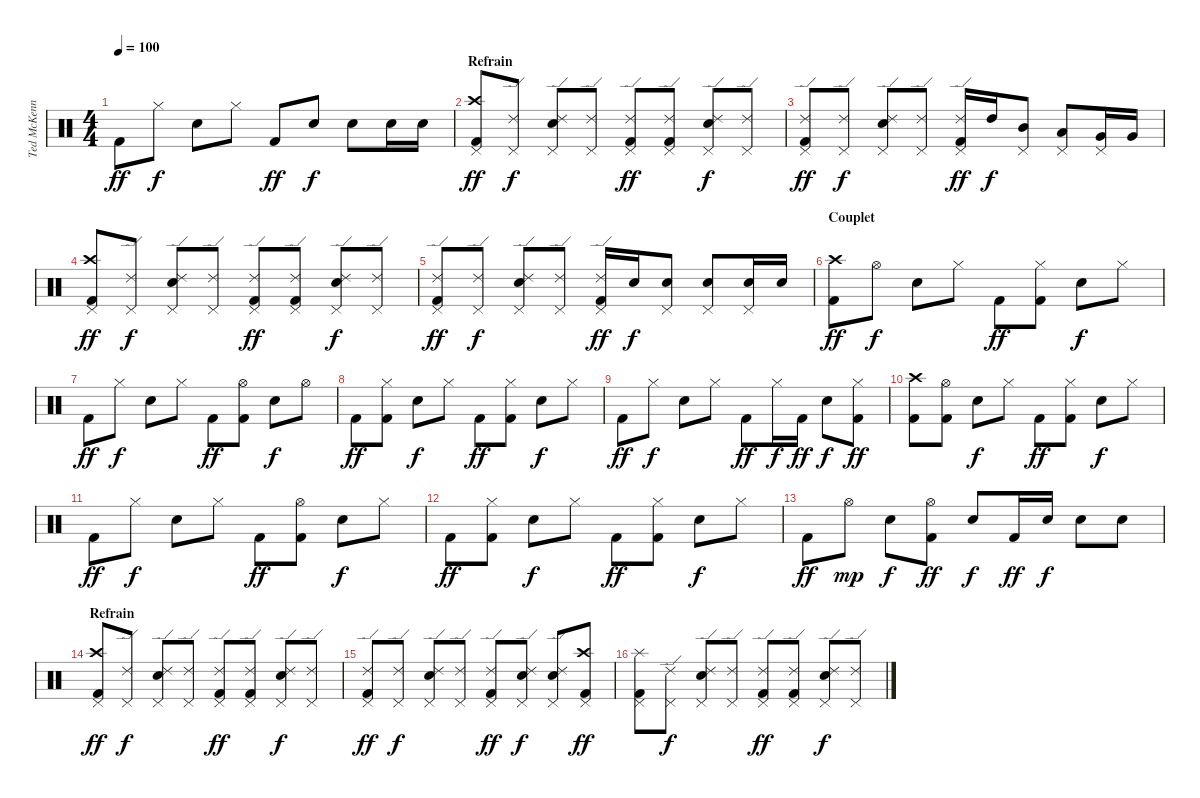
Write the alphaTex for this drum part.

\track ("Ted McKenna" "Ted McKenn") {instrument percussion}
\staff {score}
\articulation defaults
\ts (4 4)
\tempo 100
\clef neutral
\ks c "Kick (hit) 2".8{dy ff} "Hi-Hat (closed)".8{dy f} "Snare (hit) 2".8 "Hi-Hat (closed)".8 "Kick (hit) 2".8{dy ff} "Snare (hit) 2".8{dy f} "Snare (hit) 2".8 "Snare (hit) 2".16 "Snare (hit) 2".16
|
\section ("" "Refrain")
("Crash high (hit)" "Pedal Hi-Hat (hit)" "Kick (hit) 2").8{dy ff} ("Ride (edge) 2" "Pedal Hi-Hat (hit)").8{dy f} ("Ride (edge) 2" "Snare (hit) 2" "Pedal Hi-Hat (hit)").8 ("Ride (edge) 2" "Pedal Hi-Hat (hit)").8 ("Ride (edge) 2" "Pedal Hi-Hat (hit)" "Kick (hit) 2").8{dy ff} ("Ride (edge) 2" "Pedal Hi-Hat (hit)" "Kick (hit) 2").8 ("Ride (edge) 2" "Snare (hit) 2" "Pedal Hi-Hat (hit)").8{dy f} ("Ride (edge) 2" "Pedal Hi-Hat (hit)").8 |
("Ride (edge) 2" "Pedal Hi-Hat (hit)" "Kick (hit) 2").8{dy ff} ("Ride (edge) 2" "Pedal Hi-Hat (hit)").8{dy f} ("Ride (edge) 2" "Snare (hit) 2" "Pedal Hi-Hat (hit)").8 ("Ride (edge) 2" "Pedal Hi-Hat (hit)").8 ("Ride (edge) 2" "Pedal Hi-Hat (hit)" "Kick (hit) 2").16{dy ff} "High Tom (hit)".16{dy f} ("Mid Tom (hit)" "Pedal Hi-Hat (hit)").8 ("Low Tom (hit)" "Pedal Hi-Hat (hit)").8 ("Very Low Tom (hit)" "Pedal Hi-Hat (hit)").16 "Very Low Tom (hit)".16 |
("Crash high (hit)" "Pedal Hi-Hat (hit)" "Kick (hit) 2").8{dy ff} ("Ride (edge) 2" "Pedal Hi-Hat (hit)").8{dy f} ("Ride (edge) 2" "Snare (hit) 2" "Pedal Hi-Hat (hit)").8 ("Ride (edge) 2" "Pedal Hi-Hat (hit)").8 ("Ride (edge) 2" "Pedal Hi-Hat (hit)" "Kick (hit) 2").8{dy ff} ("Ride (edge) 2" "Pedal Hi-Hat (hit)" "Kick (hit) 2").8 ("Ride (edge) 2" "Snare (hit) 2" "Pedal Hi-Hat (hit)").8{dy f} ("Ride (edge) 2" "Pedal Hi-Hat (hit)").8 |
("Ride (edge) 2" "Pedal Hi-Hat (hit)" "Kick (hit) 2").8{dy ff} ("Ride (edge) 2" "Pedal Hi-Hat (hit)").8{dy f} ("Ride (edge) 2" "Snare (hit) 2" "Pedal Hi-Hat (hit)").8 ("Ride (edge) 2" "Pedal Hi-Hat (hit)").8 ("Ride (edge) 2" "Pedal Hi-Hat (hit)" "Kick (hit) 2").16{dy ff} "Snare (hit) 2".16{dy f} ("Snare (hit) 2" "Pedal Hi-Hat (hit)").8 ("Snare (hit) 2" "Pedal Hi-Hat (hit)").8 ("Snare (hit) 2" "Pedal Hi-Hat (hit)").16 "Snare (hit) 2".16 |
\section ("" "Couplet")
("Crash high (hit)" "Kick (hit) 2").8{dy ff} "Hi-Hat (open)".8{dy f} "Snare (hit) 2".8 "Hi-Hat (closed)".8 "Kick (hit) 2".8{dy ff} ("Hi-Hat (closed)" "Kick (hit) 2").8 "Snare (hit) 2".8{dy f} "Hi-Hat (closed)".8 |
"Kick (hit) 2".8{dy ff} "Hi-Hat (closed)".8{dy f} "Snare (hit) 2".8 "Hi-Hat (closed)".8 "Kick (hit) 2".8{dy ff} ("Hi-Hat (open)" "Kick (hit) 2").8 "Snare (hit) 2".8{dy f} "Hi-Hat (open)".8 |
"Kick (hit) 2".8{dy ff} ("Hi-Hat (closed)" "Kick (hit) 2").8 "Snare (hit) 2".8{dy f} "Hi-Hat (closed)".8 "Kick (hit) 2".8{dy ff} ("Hi-Hat (closed)" "Kick (hit) 2").8 "Snare (hit) 2".8{dy f} "Hi-Hat (closed)".8 |
"Kick (hit) 2".8{dy ff} "Hi-Hat (closed)".8{dy f} "Snare (hit) 2".8 "Hi-Hat (closed)".8 "Kick (hit) 2".8{dy ff} "Hi-Hat (closed)".16{dy f} "Kick (hit) 2".16{dy ff} "Snare (hit) 2".8{dy f} ("Hi-Hat (closed)" "Kick (hit) 2").8{dy ff} |
("Crash high (hit)" "Kick (hit) 2").8 ("Hi-Hat (open)" "Kick (hit) 2").8 "Snare (hit) 2".8{dy f} "Hi-Hat (closed)".8 "Kick (hit) 2".8{dy ff} ("Hi-Hat (closed)" "Kick (hit) 2").8 "Snare (hit) 2".8{dy f} "Hi-Hat (closed)".8 |
"Kick (hit) 2".8{dy ff} "Hi-Hat (closed)".8{dy f} "Snare (hit) 2".8 "Hi-Hat (closed)".8 "Kick (hit) 2".8{dy ff} ("Hi-Hat (open)" "Kick (hit) 2").8 "Snare (hit) 2".8{dy f} "Hi-Hat (closed)".8 |
"Kick (hit) 2".8{dy ff} ("Hi-Hat (closed)" "Kick (hit) 2").8 "Snare (hit) 2".8{dy f} "Hi-Hat (closed)".8 "Kick (hit) 2".8{dy ff} ("Hi-Hat (closed)" "Kick (hit) 2").8 "Snare (hit) 2".8{dy f} "Hi-Hat (closed)".8 |
"Kick (hit) 2".8{dy ff} "Hi-Hat (open)".8{dy mp} "Snare (hit) 2".8{dy f} ("Hi-Hat (open)" "Kick (hit) 2").8{dy ff} "Snare (hit) 2".8{dy f} "Kick (hit) 2".16{dy ff} "Snare (hit) 2".16{dy f} "Snare (hit) 2".8 "Snare (hit) 2".8 |
\section ("" "Refrain")
("Crash high (hit)" "Pedal Hi-Hat (hit)" "Kick (hit) 2").8{dy ff} ("Ride (edge) 2" "Pedal Hi-Hat (hit)").8{dy f} ("Ride (edge) 2" "Snare (hit) 2" "Pedal Hi-Hat (hit)").8 ("Ride (edge) 2" "Pedal Hi-Hat (hit)").8 ("Ride (edge) 2" "Pedal Hi-Hat (hit)" "Kick (hit) 2").8{dy ff} ("Ride (edge) 2" "Pedal Hi-Hat (hit)" "Kick (hit) 2").8 ("Ride (edge) 2" "Snare (hit) 2" "Pedal Hi-Hat (hit)").8{dy f} ("Ride (edge) 2" "Pedal Hi-Hat (hit)").8 |
("Ride (edge) 2" "Pedal Hi-Hat (hit)" "Kick (hit) 2").8{dy ff} ("Ride (edge) 2" "Pedal Hi-Hat (hit)").8{dy f} ("Ride (edge) 2" "Snare (hit) 2" "Pedal Hi-Hat (hit)").8 ("Ride (edge) 2" "Pedal Hi-Hat (hit)").8 ("Ride (edge) 2" "Pedal Hi-Hat (hit)" "Kick (hit) 2").8{dy ff} ("Ride (edge) 2" "Snare (hit) 2" "Pedal Hi-Hat (hit)").8{dy f} ("Ride (edge) 2" "Snare (hit) 2" "Pedal Hi-Hat (hit)").8 ("Crash high (hit)" "Pedal Hi-Hat (hit)" "Kick (hit) 2").8{dy ff} |
("Splash (hit)" "Pedal Hi-Hat (hit)" "Kick (hit) 2").8 ("Ride (edge) 2" "Pedal Hi-Hat (hit)").8{dy f} ("Ride (edge) 2" "Snare (hit) 2" "Pedal Hi-Hat (hit)").8 ("Ride (edge) 2" "Pedal Hi-Hat (hit)").8 ("Ride (edge) 2" "Pedal Hi-Hat (hit)" "Kick (hit) 2").8{dy ff} ("Ride (edge) 2" "Pedal Hi-Hat (hit)" "Kick (hit) 2").8 ("Ride (edge) 2" "Snare (hit) 2" "Pedal Hi-Hat (hit)").8{dy f} ("Ride (edge) 2" "Pedal Hi-Hat (hit)").8
